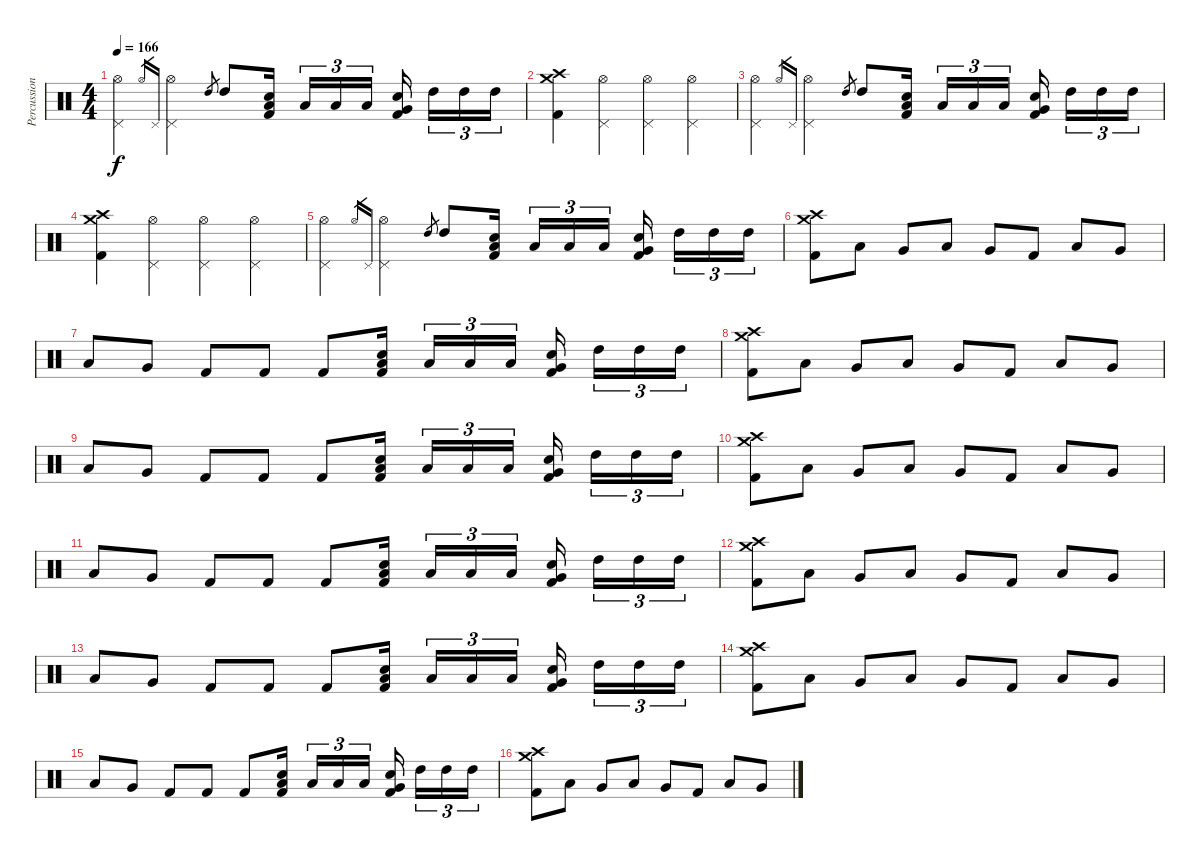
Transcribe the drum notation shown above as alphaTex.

\track ("Percussion" "Percussion") {instrument percussion}
\staff {score}
\articulation defaults
\ts (4 4)
\tempo 166
\clef neutral
\ks c
("Hi-Hat (open)" "Pedal Hi-Hat (hit)").4{dy f} "Hi-Hat (open)".16{gr} "Pedal Hi-Hat (hit)".16{gr} ("Hi-Hat (open)" "Pedal Hi-Hat (hit)").4 "High Tom (hit)".8{gr} "High Tom (hit)".8 ("Low Floor Tom (hit)" "Snare (hit) 2" "Kick (hit) 2").16 "Low Tom (hit)".16{tu (3 2)} "Low Tom (hit)".16{tu (3 2)} "Low Tom (hit)".16{tu (3 2)} ("Very Low Tom (hit)" "Snare (hit) 2" "Kick (hit) 2").16 "High Tom (hit)".16{tu (3 2)} "High Tom (hit)".16{tu (3 2)} "High Tom (hit)".16{tu (3 2)} |
("Crash high (hit)" "Crash medium (hit)" "Kick (hit) 2").4 ("Hi-Hat (open)" "Pedal Hi-Hat (hit)").4 ("Hi-Hat (open)" "Pedal Hi-Hat (hit)").4 ("Hi-Hat (open)" "Pedal Hi-Hat (hit)").4 |
("Hi-Hat (open)" "Pedal Hi-Hat (hit)").4 "Hi-Hat (open)".16{gr} "Pedal Hi-Hat (hit)".16{gr} ("Hi-Hat (open)" "Pedal Hi-Hat (hit)").4 "High Tom (hit)".8{gr} "High Tom (hit)".8 ("Low Floor Tom (hit)" "Snare (hit) 2" "Kick (hit) 2").16 "Low Tom (hit)".16{tu (3 2)} "Low Tom (hit)".16{tu (3 2)} "Low Tom (hit)".16{tu (3 2)} ("Very Low Tom (hit)" "Snare (hit) 2" "Kick (hit) 2").16 "High Tom (hit)".16{tu (3 2)} "High Tom (hit)".16{tu (3 2)} "High Tom (hit)".16{tu (3 2)} |
("Crash medium (hit)" "Crash high (hit)" "Kick (hit) 2").4 ("Hi-Hat (open)" "Pedal Hi-Hat (hit)").4 ("Hi-Hat (open)" "Pedal Hi-Hat (hit)").4 ("Hi-Hat (open)" "Pedal Hi-Hat (hit)").4 |
("Hi-Hat (open)" "Pedal Hi-Hat (hit)").4 "Hi-Hat (open)".16{gr} "Pedal Hi-Hat (hit)".16{gr} ("Hi-Hat (open)" "Pedal Hi-Hat (hit)").4 "High Tom (hit)".8{gr} "High Tom (hit)".8 ("Low Floor Tom (hit)" "Snare (hit) 2" "Kick (hit) 2").16 "Low Tom (hit)".16{tu (3 2)} "Low Tom (hit)".16{tu (3 2)} "Low Tom (hit)".16{tu (3 2)} ("Very Low Tom (hit)" "Snare (hit) 2" "Kick (hit) 2").16 "High Tom (hit)".16{tu (3 2)} "High Tom (hit)".16{tu (3 2)} "High Tom (hit)".16{tu (3 2)} |
("Crash high (hit)" "Crash medium (hit)" "Kick (hit) 2").8 "Low Floor Tom (hit)".8 "Very Low Tom (hit)".8 "Low Floor Tom (hit)".8 "Very Low Tom (hit)".8 "Kick (hit) 2".8 "Low Floor Tom (hit)".8 "Very Low Tom (hit)".8 |
"Low Floor Tom (hit)".8 "Very Low Tom (hit)".8 "Kick (hit) 2".8 "Kick (hit) 2".8 "Kick (hit) 2".8 ("Low Floor Tom (hit)" "Snare (hit) 2" "Kick (hit) 2").16 "Low Tom (hit)".16{tu (3 2)} "Low Tom (hit)".16{tu (3 2)} "Low Tom (hit)".16{tu (3 2)} ("Very Low Tom (hit)" "Snare (hit) 2" "Kick (hit) 2").16 "High Tom (hit)".16{tu (3 2)} "High Tom (hit)".16{tu (3 2)} "High Tom (hit)".16{tu (3 2)} |
("Crash medium (hit)" "Crash high (hit)" "Kick (hit) 2").8 "Low Floor Tom (hit)".8 "Very Low Tom (hit)".8 "Low Floor Tom (hit)".8 "Very Low Tom (hit)".8 "Kick (hit) 2".8 "Low Floor Tom (hit)".8 "Very Low Tom (hit)".8 |
"Low Floor Tom (hit)".8 "Very Low Tom (hit)".8 "Kick (hit) 2".8 "Kick (hit) 2".8 "Kick (hit) 2".8 ("Low Floor Tom (hit)" "Snare (hit) 2" "Kick (hit) 2").16 "Low Tom (hit)".16{tu (3 2)} "Low Tom (hit)".16{tu (3 2)} "Low Tom (hit)".16{tu (3 2)} ("Very Low Tom (hit)" "Snare (hit) 2" "Kick (hit) 2").16 "High Tom (hit)".16{tu (3 2)} "High Tom (hit)".16{tu (3 2)} "High Tom (hit)".16{tu (3 2)} |
("Crash high (hit)" "Crash medium (hit)" "Kick (hit) 2").8 "Low Floor Tom (hit)".8 "Very Low Tom (hit)".8 "Low Floor Tom (hit)".8 "Very Low Tom (hit)".8 "Kick (hit) 2".8 "Low Floor Tom (hit)".8 "Very Low Tom (hit)".8 |
"Low Floor Tom (hit)".8 "Very Low Tom (hit)".8 "Kick (hit) 2".8 "Kick (hit) 2".8 "Kick (hit) 2".8 ("Low Floor Tom (hit)" "Snare (hit) 2" "Kick (hit) 2").16 "Low Tom (hit)".16{tu (3 2)} "Low Tom (hit)".16{tu (3 2)} "Low Tom (hit)".16{tu (3 2)} ("Very Low Tom (hit)" "Snare (hit) 2" "Kick (hit) 2").16 "High Tom (hit)".16{tu (3 2)} "High Tom (hit)".16{tu (3 2)} "High Tom (hit)".16{tu (3 2)} |
("Crash medium (hit)" "Crash high (hit)" "Kick (hit) 2").8 "Low Floor Tom (hit)".8 "Very Low Tom (hit)".8 "Low Floor Tom (hit)".8 "Very Low Tom (hit)".8 "Kick (hit) 2".8 "Low Floor Tom (hit)".8 "Very Low Tom (hit)".8 |
"Low Floor Tom (hit)".8 "Very Low Tom (hit)".8 "Kick (hit) 2".8 "Kick (hit) 2".8 "Kick (hit) 2".8 ("Low Floor Tom (hit)" "Snare (hit) 2" "Kick (hit) 2").16 "Low Tom (hit)".16{tu (3 2)} "Low Tom (hit)".16{tu (3 2)} "Low Tom (hit)".16{tu (3 2)} ("Very Low Tom (hit)" "Snare (hit) 2" "Kick (hit) 2").16 "High Tom (hit)".16{tu (3 2)} "High Tom (hit)".16{tu (3 2)} "High Tom (hit)".16{tu (3 2)} |
("Crash high (hit)" "Crash medium (hit)" "Kick (hit) 2").8 "Low Floor Tom (hit)".8 "Very Low Tom (hit)".8 "Low Floor Tom (hit)".8 "Very Low Tom (hit)".8 "Kick (hit) 2".8 "Low Floor Tom (hit)".8 "Very Low Tom (hit)".8 |
"Low Floor Tom (hit)".8 "Very Low Tom (hit)".8 "Kick (hit) 2".8 "Kick (hit) 2".8 "Kick (hit) 2".8 ("Low Floor Tom (hit)" "Snare (hit) 2" "Kick (hit) 2").16 "Low Tom (hit)".16{tu (3 2)} "Low Tom (hit)".16{tu (3 2)} "Low Tom (hit)".16{tu (3 2)} ("Very Low Tom (hit)" "Snare (hit) 2" "Kick (hit) 2").16 "High Tom (hit)".16{tu (3 2)} "High Tom (hit)".16{tu (3 2)} "High Tom (hit)".16{tu (3 2)} |
("Crash medium (hit)" "Crash high (hit)" "Kick (hit) 2").8 "Low Floor Tom (hit)".8 "Very Low Tom (hit)".8 "Low Floor Tom (hit)".8 "Very Low Tom (hit)".8 "Kick (hit) 2".8 "Low Floor Tom (hit)".8 "Very Low Tom (hit)".8
